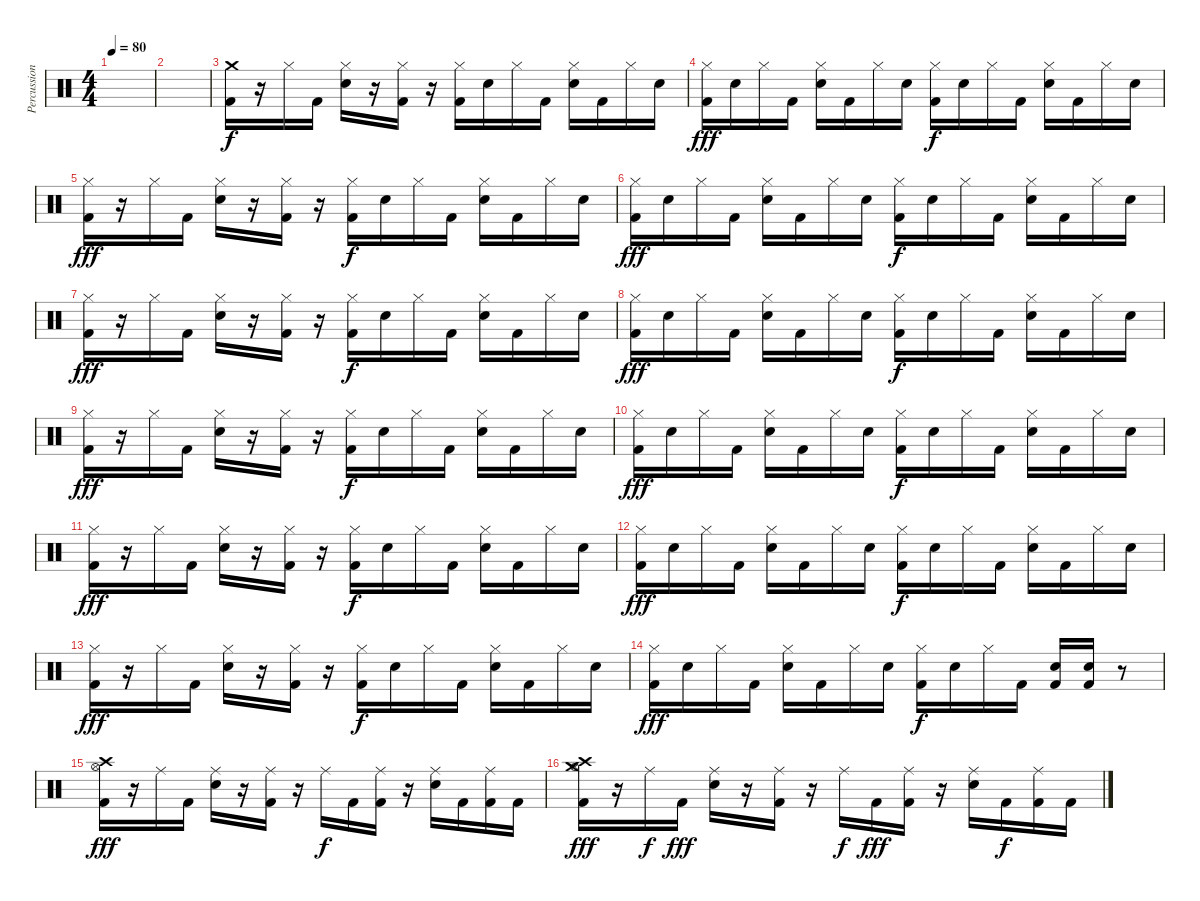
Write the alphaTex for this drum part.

\track ("Percussion" "Percussion") {instrument percussion}
\staff {score}
\articulation defaults
\ts (4 4)
\tempo 80
\clef neutral
\ks c
|
|
("Crash medium (hit)" "Kick (hit) 2").16 r.16 "Hi-Hat (closed)".16 "Kick (hit) 2".16 ("Hi-Hat (closed)" "Electric Snare (hit)").16 r.16 ("Hi-Hat (closed)" "Kick (hit) 2").16 r.16 ("Hi-Hat (closed)" "Kick (hit) 2").16{dy f} "Electric Snare (hit)".16 "Hi-Hat (closed)".16 "Kick (hit) 2".16 ("Electric Snare (hit)" "Hi-Hat (closed)").16 "Kick (hit) 2".16 "Hi-Hat (closed)".16 "Electric Snare (hit)".16 |
("Hi-Hat (closed)" "Kick (hit) 2").16{dy fff} "Electric Snare (hit)".16 "Hi-Hat (closed)".16 "Kick (hit) 2".16 ("Electric Snare (hit)" "Hi-Hat (closed)").16 "Kick (hit) 2".16 "Hi-Hat (closed)".16 "Electric Snare (hit)".16 ("Hi-Hat (closed)" "Kick (hit) 2").16{dy f} "Electric Snare (hit)".16 "Hi-Hat (closed)".16 "Kick (hit) 2".16 ("Electric Snare (hit)" "Hi-Hat (closed)").16 "Kick (hit) 2".16 "Hi-Hat (closed)".16 "Electric Snare (hit)".16 |
("Kick (hit) 2" "Hi-Hat (closed)").16{dy fff} r.16 "Hi-Hat (closed)".16 "Kick (hit) 2".16 ("Hi-Hat (closed)" "Electric Snare (hit)").16 r.16 ("Hi-Hat (closed)" "Kick (hit) 2").16 r.16 ("Hi-Hat (closed)" "Kick (hit) 2").16{dy f} "Electric Snare (hit)".16 "Hi-Hat (closed)".16 "Kick (hit) 2".16 ("Electric Snare (hit)" "Hi-Hat (closed)").16 "Kick (hit) 2".16 "Hi-Hat (closed)".16 "Electric Snare (hit)".16 |
("Hi-Hat (closed)" "Kick (hit) 2").16{dy fff} "Electric Snare (hit)".16 "Hi-Hat (closed)".16 "Kick (hit) 2".16 ("Electric Snare (hit)" "Hi-Hat (closed)").16 "Kick (hit) 2".16 "Hi-Hat (closed)".16 "Electric Snare (hit)".16 ("Hi-Hat (closed)" "Kick (hit) 2").16{dy f} "Electric Snare (hit)".16 "Hi-Hat (closed)".16 "Kick (hit) 2".16 ("Electric Snare (hit)" "Hi-Hat (closed)").16 "Kick (hit) 2".16 "Hi-Hat (closed)".16 "Electric Snare (hit)".16 |
("Kick (hit) 2" "Hi-Hat (closed)").16{dy fff} r.16 "Hi-Hat (closed)".16 "Kick (hit) 2".16 ("Hi-Hat (closed)" "Electric Snare (hit)").16 r.16 ("Hi-Hat (closed)" "Kick (hit) 2").16 r.16 ("Hi-Hat (closed)" "Kick (hit) 2").16{dy f} "Electric Snare (hit)".16 "Hi-Hat (closed)".16 "Kick (hit) 2".16 ("Electric Snare (hit)" "Hi-Hat (closed)").16 "Kick (hit) 2".16 "Hi-Hat (closed)".16 "Electric Snare (hit)".16 |
("Hi-Hat (closed)" "Kick (hit) 2").16{dy fff} "Electric Snare (hit)".16 "Hi-Hat (closed)".16 "Kick (hit) 2".16 ("Electric Snare (hit)" "Hi-Hat (closed)").16 "Kick (hit) 2".16 "Hi-Hat (closed)".16 "Electric Snare (hit)".16 ("Hi-Hat (closed)" "Kick (hit) 2").16{dy f} "Electric Snare (hit)".16 "Hi-Hat (closed)".16 "Kick (hit) 2".16 ("Electric Snare (hit)" "Hi-Hat (closed)").16 "Kick (hit) 2".16 "Hi-Hat (closed)".16 "Electric Snare (hit)".16 |
("Kick (hit) 2" "Hi-Hat (closed)").16{dy fff} r.16 "Hi-Hat (closed)".16 "Kick (hit) 2".16 ("Hi-Hat (closed)" "Electric Snare (hit)").16 r.16 ("Hi-Hat (closed)" "Kick (hit) 2").16 r.16 ("Hi-Hat (closed)" "Kick (hit) 2").16{dy f} "Electric Snare (hit)".16 "Hi-Hat (closed)".16 "Kick (hit) 2".16 ("Electric Snare (hit)" "Hi-Hat (closed)").16 "Kick (hit) 2".16 "Hi-Hat (closed)".16 "Electric Snare (hit)".16 |
("Hi-Hat (closed)" "Kick (hit) 2").16{dy fff} "Electric Snare (hit)".16 "Hi-Hat (closed)".16 "Kick (hit) 2".16 ("Electric Snare (hit)" "Hi-Hat (closed)").16 "Kick (hit) 2".16 "Hi-Hat (closed)".16 "Electric Snare (hit)".16 ("Hi-Hat (closed)" "Kick (hit) 2").16{dy f} "Electric Snare (hit)".16 "Hi-Hat (closed)".16 "Kick (hit) 2".16 ("Electric Snare (hit)" "Hi-Hat (closed)").16 "Kick (hit) 2".16 "Hi-Hat (closed)".16 "Electric Snare (hit)".16 |
("Kick (hit) 2" "Hi-Hat (closed)").16{dy fff} r.16 "Hi-Hat (closed)".16 "Kick (hit) 2".16 ("Hi-Hat (closed)" "Electric Snare (hit)").16 r.16 ("Hi-Hat (closed)" "Kick (hit) 2").16 r.16 ("Hi-Hat (closed)" "Kick (hit) 2").16{dy f} "Electric Snare (hit)".16 "Hi-Hat (closed)".16 "Kick (hit) 2".16 ("Electric Snare (hit)" "Hi-Hat (closed)").16 "Kick (hit) 2".16 "Hi-Hat (closed)".16 "Electric Snare (hit)".16 |
("Hi-Hat (closed)" "Kick (hit) 2").16{dy fff} "Electric Snare (hit)".16 "Hi-Hat (closed)".16 "Kick (hit) 2".16 ("Electric Snare (hit)" "Hi-Hat (closed)").16 "Kick (hit) 2".16 "Hi-Hat (closed)".16 "Electric Snare (hit)".16 ("Hi-Hat (closed)" "Kick (hit) 2").16{dy f} "Electric Snare (hit)".16 "Hi-Hat (closed)".16 "Kick (hit) 2".16 ("Electric Snare (hit)" "Hi-Hat (closed)").16 "Kick (hit) 2".16 "Hi-Hat (closed)".16 "Electric Snare (hit)".16 |
("Kick (hit) 2" "Hi-Hat (closed)").16{dy fff} r.16 "Hi-Hat (closed)".16 "Kick (hit) 2".16 ("Hi-Hat (closed)" "Electric Snare (hit)").16 r.16 ("Hi-Hat (closed)" "Kick (hit) 2").16 r.16 ("Hi-Hat (closed)" "Kick (hit) 2").16{dy f} "Electric Snare (hit)".16 "Hi-Hat (closed)".16 "Kick (hit) 2".16 ("Electric Snare (hit)" "Hi-Hat (closed)").16 "Kick (hit) 2".16 "Hi-Hat (closed)".16 "Electric Snare (hit)".16 |
("Hi-Hat (closed)" "Kick (hit) 2").16{dy fff} "Electric Snare (hit)".16 "Hi-Hat (closed)".16 "Kick (hit) 2".16 ("Electric Snare (hit)" "Hi-Hat (closed)").16 "Kick (hit) 2".16 "Hi-Hat (closed)".16 "Electric Snare (hit)".16 ("Hi-Hat (closed)" "Kick (hit) 2").16{dy f} "Electric Snare (hit)".16 "Hi-Hat (closed)".16 "Kick (hit) 2".16 ("Electric Snare (hit)" "Kick (hit) 2").16 ("Electric Snare (hit)" "Kick (hit) 2").16 r.8 |
("Hi-Hat (open)" "Kick (hit) 2" "Crash high (hit)").16{dy fff} r.16 "Ride (middle)".16 "Kick (hit) 2".16 ("Electric Snare (hit)" "Ride (middle)").16 r.16 ("Ride (middle)" "Kick (hit) 2").16 r.16 "Ride (middle)".16{dy f} "Kick (hit) 2".16 ("Ride (middle)" "Kick (hit) 2").16 r.16 ("Ride (middle)" "Electric Snare (hit)").16 "Kick (hit) 2".16 ("Kick (hit) 2" "Ride (middle)").16 "Kick (hit) 2".16 |
("Kick (hit) 2" "Hi-Hat (open)" "Crash high (hit)" "Crash medium (hit)").16{dy fff} r.16 "Ride (middle)".16{dy f} "Kick (hit) 2".16{dy fff} ("Electric Snare (hit)" "Ride (middle)").16 r.16 ("Ride (middle)" "Kick (hit) 2").16 r.16 "Ride (middle)".16{dy f} "Kick (hit) 2".16{dy fff} ("Ride (middle)" "Kick (hit) 2").16 r.16 ("Ride (middle)" "Electric Snare (hit)").16 "Kick (hit) 2".16{dy f} ("Kick (hit) 2" "Ride (middle)").16 "Kick (hit) 2".16
